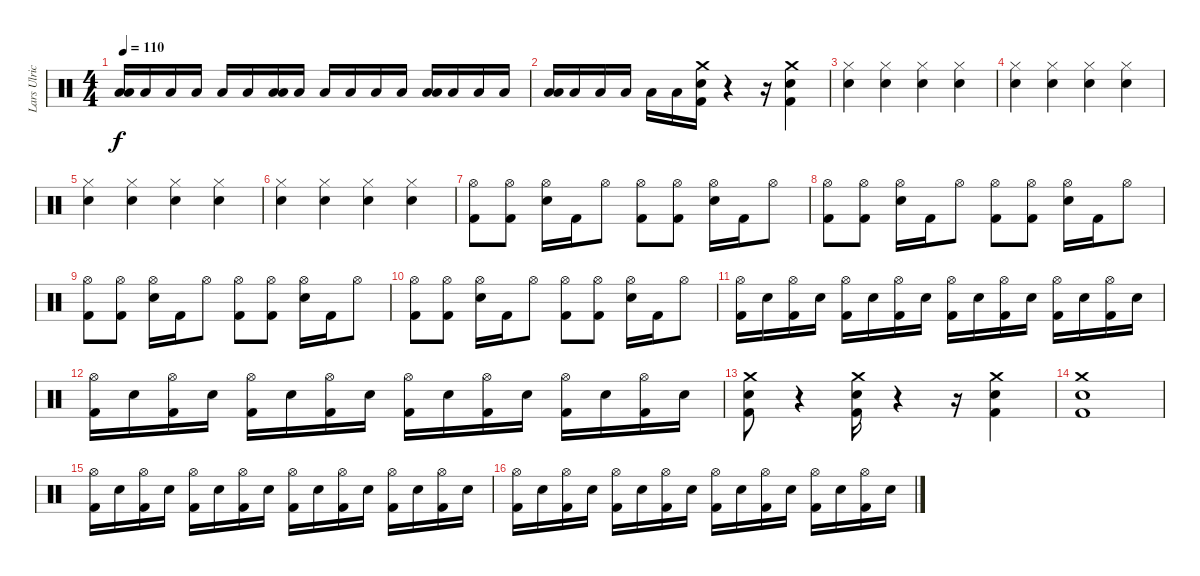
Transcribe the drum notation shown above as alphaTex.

\track ("Lars Ulrich" "Lars Ulric") {instrument percussion}
\staff {score}
\articulation defaults
\ts (4 4)
\tempo 110
\clef neutral
\ks c
("Low Tom (hit)" "Low Floor Tom (hit)").16{dy f} "Low Floor Tom (hit)".16 "Low Floor Tom (hit)".16 "Low Floor Tom (hit)".16 "Low Floor Tom (hit)".16 "Low Floor Tom (hit)".16 ("Low Tom (hit)" "Low Floor Tom (hit)").16 "Low Floor Tom (hit)".16 "Low Floor Tom (hit)".16 "Low Floor Tom (hit)".16 "Low Floor Tom (hit)".16 "Low Floor Tom (hit)".16 ("Low Tom (hit)" "Low Floor Tom (hit)").16 "Low Floor Tom (hit)".16 "Low Floor Tom (hit)".16 "Low Floor Tom (hit)".16 |
("Low Tom (hit)" "Low Floor Tom (hit)").16 "Low Floor Tom (hit)".16 "Low Floor Tom (hit)".16 "Low Floor Tom (hit)".16 "Low Floor Tom (hit)".16 "Low Floor Tom (hit)".16 ("Crash medium (hit)" "Electric Snare (hit)" "Kick (hit) 2").16 r.4 r.16 ("Crash medium (hit)" "Electric Snare (hit)" "Kick (hit) 2").4 |
("Hi-Hat (closed)" "Electric Snare (hit)").4 ("Hi-Hat (closed)" "Electric Snare (hit)").4 ("Hi-Hat (closed)" "Electric Snare (hit)").4 ("Hi-Hat (closed)" "Electric Snare (hit)").4 |
("Hi-Hat (closed)" "Electric Snare (hit)").4 ("Hi-Hat (closed)" "Electric Snare (hit)").4 ("Hi-Hat (closed)" "Electric Snare (hit)").4 ("Hi-Hat (closed)" "Electric Snare (hit)").4 |
("Hi-Hat (closed)" "Electric Snare (hit)").4 ("Hi-Hat (closed)" "Electric Snare (hit)").4 ("Hi-Hat (closed)" "Electric Snare (hit)").4 ("Hi-Hat (closed)" "Electric Snare (hit)").4 |
("Hi-Hat (closed)" "Electric Snare (hit)").4 ("Hi-Hat (closed)" "Electric Snare (hit)").4 ("Hi-Hat (closed)" "Electric Snare (hit)").4 ("Hi-Hat (closed)" "Electric Snare (hit)").4 |
("Hi-Hat (open)" "Kick (hit) 2").8 ("Hi-Hat (open)" "Kick (hit) 2").8 ("Hi-Hat (open)" "Electric Snare (hit)").16 "Kick (hit) 2".16 "Hi-Hat (open)".8 ("Hi-Hat (open)" "Kick (hit) 2").8 ("Hi-Hat (open)" "Kick (hit) 2").8 ("Hi-Hat (open)" "Electric Snare (hit)").16 "Kick (hit) 2".16 "Hi-Hat (open)".8 |
("Hi-Hat (open)" "Kick (hit) 2").8 ("Hi-Hat (open)" "Kick (hit) 2").8 ("Hi-Hat (open)" "Electric Snare (hit)").16 "Kick (hit) 2".16 "Hi-Hat (open)".8 ("Hi-Hat (open)" "Kick (hit) 2").8 ("Hi-Hat (open)" "Kick (hit) 2").8 ("Hi-Hat (open)" "Electric Snare (hit)").16 "Kick (hit) 2".16 "Hi-Hat (open)".8 |
("Hi-Hat (open)" "Kick (hit) 2").8 ("Hi-Hat (open)" "Kick (hit) 2").8 ("Hi-Hat (open)" "Electric Snare (hit)").16 "Kick (hit) 2".16 "Hi-Hat (open)".8 ("Hi-Hat (open)" "Kick (hit) 2").8 ("Hi-Hat (open)" "Kick (hit) 2").8 ("Hi-Hat (open)" "Electric Snare (hit)").16 "Kick (hit) 2".16 "Hi-Hat (open)".8 |
("Hi-Hat (open)" "Kick (hit) 2").8 ("Hi-Hat (open)" "Kick (hit) 2").8 ("Hi-Hat (open)" "Electric Snare (hit)").16 "Kick (hit) 2".16 "Hi-Hat (open)".8 ("Hi-Hat (open)" "Kick (hit) 2").8 ("Hi-Hat (open)" "Kick (hit) 2").8 ("Hi-Hat (open)" "Electric Snare (hit)").16 "Kick (hit) 2".16 "Hi-Hat (open)".8 |
("Hi-Hat (open)" "Kick (hit) 2").16 "Electric Snare (hit)".16 ("Hi-Hat (open)" "Kick (hit) 2").16 "Electric Snare (hit)".16 ("Hi-Hat (open)" "Kick (hit) 2").16 "Electric Snare (hit)".16 ("Hi-Hat (open)" "Kick (hit) 2").16 "Electric Snare (hit)".16 ("Hi-Hat (open)" "Kick (hit) 2").16 "Electric Snare (hit)".16 ("Hi-Hat (open)" "Kick (hit) 2").16 "Electric Snare (hit)".16 ("Hi-Hat (open)" "Kick (hit) 2").16 "Electric Snare (hit)".16 ("Hi-Hat (open)" "Kick (hit) 2").16 "Electric Snare (hit)".16 |
("Hi-Hat (open)" "Kick (hit) 2").16 "Electric Snare (hit)".16 ("Hi-Hat (open)" "Kick (hit) 2").16 "Electric Snare (hit)".16 ("Hi-Hat (open)" "Kick (hit) 2").16 "Electric Snare (hit)".16 ("Hi-Hat (open)" "Kick (hit) 2").16 "Electric Snare (hit)".16 ("Hi-Hat (open)" "Kick (hit) 2").16 "Electric Snare (hit)".16 ("Hi-Hat (open)" "Kick (hit) 2").16 "Electric Snare (hit)".16 ("Hi-Hat (open)" "Kick (hit) 2").16 "Electric Snare (hit)".16 ("Hi-Hat (open)" "Kick (hit) 2").16 "Electric Snare (hit)".16 |
("Crash medium (hit)" "Electric Snare (hit)" "Kick (hit) 2").8 r.4 ("Crash medium (hit)" "Electric Snare (hit)" "Kick (hit) 2").16 r.4 r.16 ("Crash medium (hit)" "Electric Snare (hit)" "Kick (hit) 2").4 |
("Crash medium (hit)" "Electric Snare (hit)" "Kick (hit) 2").1 |
("Hi-Hat (open)" "Kick (hit) 2").16 "Electric Snare (hit)".16 ("Hi-Hat (open)" "Kick (hit) 2").16 "Electric Snare (hit)".16 ("Hi-Hat (open)" "Kick (hit) 2").16 "Electric Snare (hit)".16 ("Hi-Hat (open)" "Kick (hit) 2").16 "Electric Snare (hit)".16 ("Hi-Hat (open)" "Kick (hit) 2").16 "Electric Snare (hit)".16 ("Hi-Hat (open)" "Kick (hit) 2").16 "Electric Snare (hit)".16 ("Hi-Hat (open)" "Kick (hit) 2").16 "Electric Snare (hit)".16 ("Hi-Hat (open)" "Kick (hit) 2").16 "Electric Snare (hit)".16 |
("Hi-Hat (open)" "Kick (hit) 2").16 "Electric Snare (hit)".16 ("Hi-Hat (open)" "Kick (hit) 2").16 "Electric Snare (hit)".16 ("Hi-Hat (open)" "Kick (hit) 2").16 "Electric Snare (hit)".16 ("Hi-Hat (open)" "Kick (hit) 2").16 "Electric Snare (hit)".16 ("Hi-Hat (open)" "Kick (hit) 2").16 "Electric Snare (hit)".16 ("Hi-Hat (open)" "Kick (hit) 2").16 "Electric Snare (hit)".16 ("Hi-Hat (open)" "Kick (hit) 2").16 "Electric Snare (hit)".16 ("Hi-Hat (open)" "Kick (hit) 2").16 "Electric Snare (hit)".16
